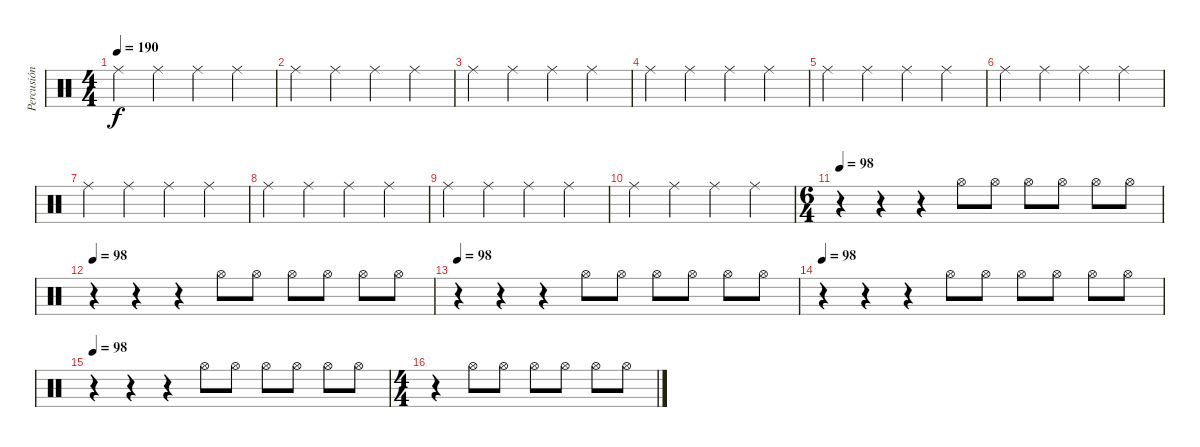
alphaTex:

\track ("Percusión" "Percusión") {instrument percussion}
\staff {score}
\articulation defaults
\ts (4 4)
\tempo 190
\clef neutral
\ks c "Ride (middle)".4{dy f} "Ride (middle)".4 "Ride (middle)".4 "Ride (middle)".4
|
"Ride (middle)".4 "Ride (middle)".4 "Ride (middle)".4 "Ride (middle)".4 |
"Ride (middle)".4 "Ride (middle)".4 "Ride (middle)".4 "Ride (middle)".4 |
"Ride (middle)".4 "Ride (middle)".4 "Ride (middle)".4 "Ride (middle)".4 |
"Ride (middle)".4 "Ride (middle)".4 "Ride (middle)".4 "Ride (middle)".4 |
"Ride (middle)".4 "Ride (middle)".4 "Ride (middle)".4 "Ride (middle)".4 |
"Ride (middle)".4 "Ride (middle)".4 "Ride (middle)".4 "Ride (middle)".4 |
"Ride (middle)".4 "Ride (middle)".4 "Ride (middle)".4 "Ride (middle)".4 |
"Ride (middle)".4 "Ride (middle)".4 "Ride (middle)".4 "Ride (middle)".4 |
"Ride (middle)".4 "Ride (middle)".4 "Ride (middle)".4 "Ride (middle)".4 |
\ts (6 4)
\tempo 98
r.4 r.4 r.4 "Hi-Hat (open)".8 "Hi-Hat (open)".8 "Hi-Hat (open)".8 "Hi-Hat (open)".8 "Hi-Hat (open)".8 "Hi-Hat (open)".8 |
\tempo 98
r.4 r.4 r.4 "Hi-Hat (open)".8 "Hi-Hat (open)".8 "Hi-Hat (open)".8 "Hi-Hat (open)".8 "Hi-Hat (open)".8 "Hi-Hat (open)".8 |
\tempo 98
r.4 r.4 r.4 "Hi-Hat (open)".8 "Hi-Hat (open)".8 "Hi-Hat (open)".8 "Hi-Hat (open)".8 "Hi-Hat (open)".8 "Hi-Hat (open)".8 |
\tempo 98
r.4 r.4 r.4 "Hi-Hat (open)".8 "Hi-Hat (open)".8 "Hi-Hat (open)".8 "Hi-Hat (open)".8 "Hi-Hat (open)".8 "Hi-Hat (open)".8 |
\tempo 98
r.4 r.4 r.4 "Hi-Hat (open)".8 "Hi-Hat (open)".8 "Hi-Hat (open)".8 "Hi-Hat (open)".8 "Hi-Hat (open)".8 "Hi-Hat (open)".8 |
\ts (4 4)
r.4 "Hi-Hat (open)".8 "Hi-Hat (open)".8 "Hi-Hat (open)".8 "Hi-Hat (open)".8 "Hi-Hat (open)".8 "Hi-Hat (open)".8
